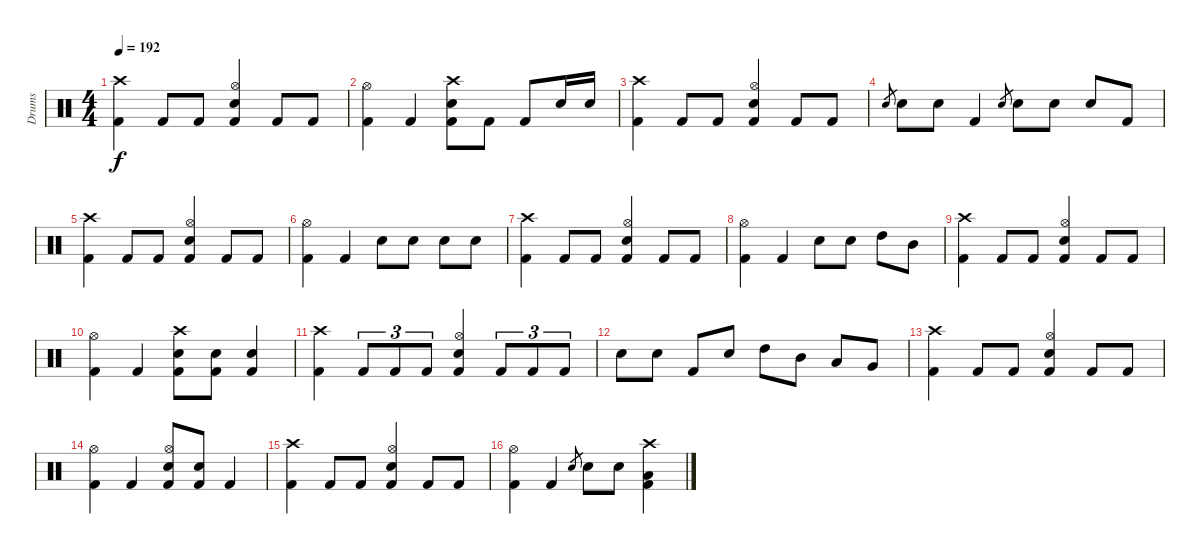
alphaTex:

\track ("Drums" "Drums") {instrument percussion}
\staff {score}
\articulation defaults
\ts (4 4)
\tempo 192
\clef neutral
\ks c
("Crash high (hit)" "Kick (hit) 2").4{dy f} "Kick (hit) 2".8 "Kick (hit) 2".8 ("Hi-Hat (open)" "Snare (hit) 2" "Kick (hit) 2").4 "Kick (hit) 2".8 "Kick (hit) 2".8 |
("Hi-Hat (open)" "Kick (hit) 2").4 "Kick (hit) 2".4 ("Crash high (hit)" "Snare (hit) 2" "Kick (hit) 2").8 "Kick (hit) 2".8 "Kick (hit) 2".8 "Snare (hit) 2".16 "Snare (hit) 2".16 |
("Crash high (hit)" "Kick (hit) 2").4 "Kick (hit) 2".8 "Kick (hit) 2".8 ("Hi-Hat (open)" "Snare (hit) 2" "Kick (hit) 2").4 "Kick (hit) 2".8 "Kick (hit) 2".8 |
"Snare (hit) 2".8{gr} "Snare (hit) 2".8 "Snare (hit) 2".8 "Kick (hit) 2".4 "Snare (hit) 2".8{gr} "Snare (hit) 2".8 "Snare (hit) 2".8 "Snare (hit) 2".8 "Kick (hit) 2".8 |
("Crash high (hit)" "Kick (hit) 2").4 "Kick (hit) 2".8 "Kick (hit) 2".8 ("Hi-Hat (open)" "Snare (hit) 2" "Kick (hit) 2").4 "Kick (hit) 2".8 "Kick (hit) 2".8 |
("Hi-Hat (open)" "Kick (hit) 2").4 "Kick (hit) 2".4 "Snare (hit) 2".8 "Snare (hit) 2".8 "Snare (hit) 2".8 "Snare (hit) 2".8 |
("Crash high (hit)" "Kick (hit) 2").4 "Kick (hit) 2".8 "Kick (hit) 2".8 ("Hi-Hat (open)" "Snare (hit) 2" "Kick (hit) 2").4 "Kick (hit) 2".8 "Kick (hit) 2".8 |
("Hi-Hat (open)" "Kick (hit) 2").4 "Kick (hit) 2".4 "Snare (hit) 2".8 "Snare (hit) 2".8 "High Tom (hit)".8 "Mid Tom (hit)".8 |
("Crash high (hit)" "Kick (hit) 2").4 "Kick (hit) 2".8 "Kick (hit) 2".8 ("Hi-Hat (open)" "Snare (hit) 2" "Kick (hit) 2").4 "Kick (hit) 2".8 "Kick (hit) 2".8 |
("Hi-Hat (open)" "Kick (hit) 2").4 "Kick (hit) 2".4 ("Crash high (hit)" "Snare (hit) 2" "Kick (hit) 2").8 ("Snare (hit) 2" "Kick (hit) 2").8 ("Snare (hit) 2" "Kick (hit) 2").4 |
("Crash high (hit)" "Kick (hit) 2").4 "Kick (hit) 2".8{tu (3 2)} "Kick (hit) 2".8{tu (3 2)} "Kick (hit) 2".8{tu (3 2)} ("Hi-Hat (open)" "Snare (hit) 2" "Kick (hit) 2").4 "Kick (hit) 2".8{tu (3 2)} "Kick (hit) 2".8{tu (3 2)} "Kick (hit) 2".8{tu (3 2)} |
"Snare (hit) 2".8 "Snare (hit) 2".8 "Kick (hit) 2".8 "Snare (hit) 2".8 "High Tom (hit)".8 "Mid Tom (hit)".8 "Low Tom (hit)".8 "Very Low Tom (hit)".8 |
("Crash high (hit)" "Kick (hit) 2").4 "Kick (hit) 2".8 "Kick (hit) 2".8 ("Hi-Hat (open)" "Snare (hit) 2" "Kick (hit) 2").4 "Kick (hit) 2".8 "Kick (hit) 2".8 |
("Hi-Hat (open)" "Kick (hit) 2").4 "Kick (hit) 2".4 ("Hi-Hat (open)" "Snare (hit) 2" "Kick (hit) 2").8 ("Snare (hit) 2" "Kick (hit) 2").8 "Kick (hit) 2".4 |
("Crash high (hit)" "Kick (hit) 2").4 "Kick (hit) 2".8 "Kick (hit) 2".8 ("Hi-Hat (open)" "Snare (hit) 2" "Kick (hit) 2").4 "Kick (hit) 2".8 "Kick (hit) 2".8 |
("Hi-Hat (open)" "Kick (hit) 2").4 "Kick (hit) 2".4 "Snare (hit) 2".8{gr} "Snare (hit) 2".8 "Snare (hit) 2".8 ("Crash high (hit)" "Low Tom (hit)" "Kick (hit) 2").4
